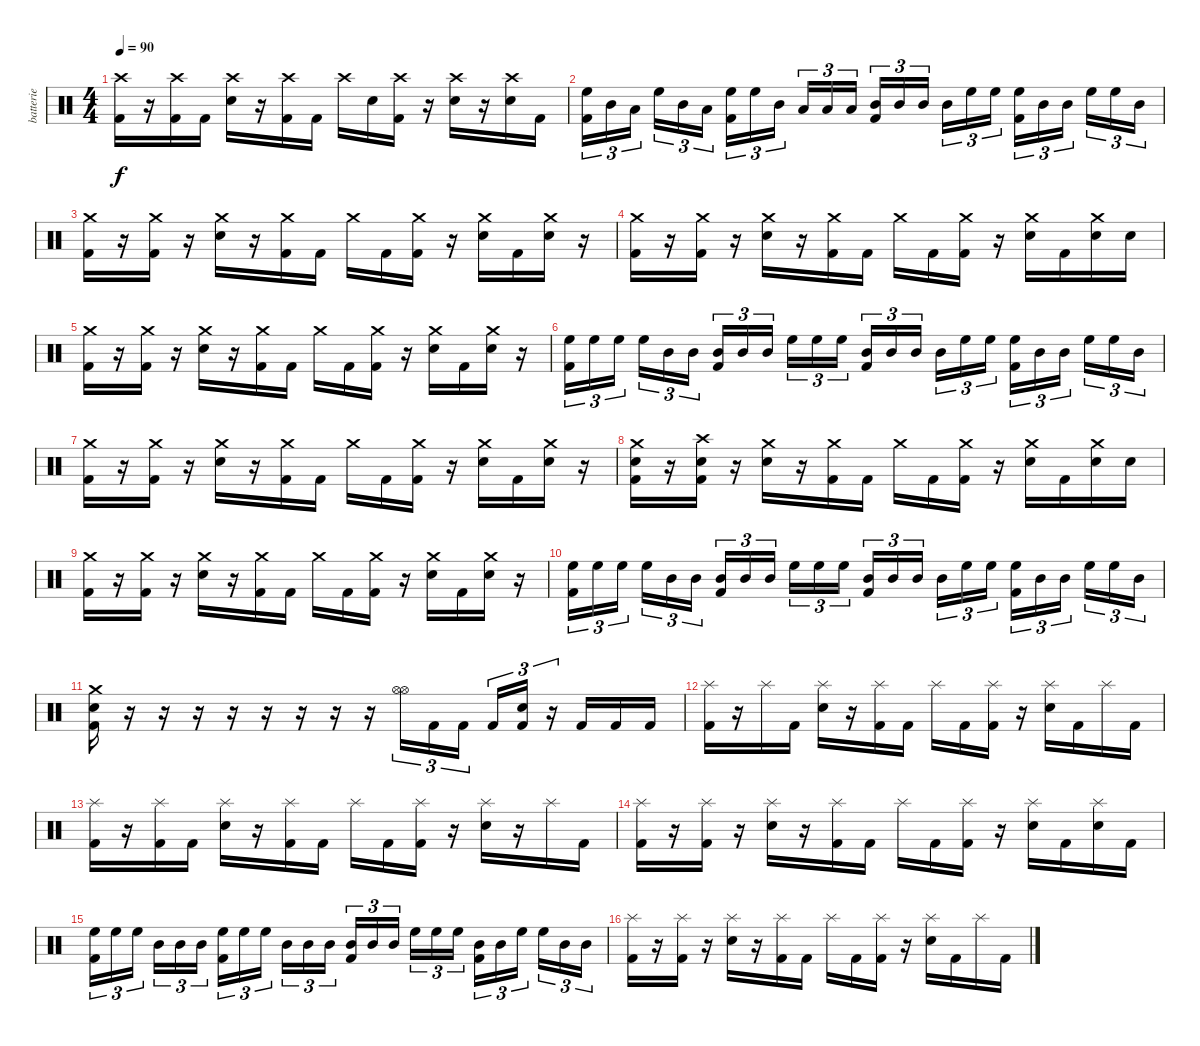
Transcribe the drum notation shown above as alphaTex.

\track ("batterie" "batterie") {instrument percussion}
\staff {score}
\articulation defaults
\ts (4 4)
\tempo 90
\clef neutral
\ks c
("Crash high (hit)" "Kick (hit) 2").16{dy f} r.16 ("Crash high (hit)" "Kick (hit) 2").16 "Kick (hit) 2".16 ("Crash high (hit)" "Electric Snare (hit)").16 r.16 ("Crash high (hit)" "Kick (hit) 2").16 "Kick (hit) 2".16 "Crash high (hit)".16 "Electric Snare (hit)".16 ("Crash high (hit)" "Kick (hit) 2").16 r.16 ("Crash high (hit)" "Electric Snare (hit)").16 r.16 ("Crash high (hit)" "Electric Snare (hit)").16 "Kick (hit) 2".16 |
("High Floor Tom (hit)" "Kick (hit) 2").16{tu (3 2)} "Mid Tom (hit)".16{tu (3 2)} "Low Tom (hit)".16{tu (3 2)} "High Floor Tom (hit)".16{tu (3 2)} "Mid Tom (hit)".16{tu (3 2)} "Low Tom (hit)".16{tu (3 2)} ("High Floor Tom (hit)" "Kick (hit) 2").16{tu (3 2)} "High Floor Tom (hit)".16{tu (3 2)} "Mid Tom (hit)".16{tu (3 2)} "Low Tom (hit)".16{tu (3 2)} "Low Tom (hit)".16{tu (3 2)} "Low Tom (hit)".16{tu (3 2)} ("Mid Tom (hit)" "Kick (hit) 2").16{tu (3 2)} "Mid Tom (hit)".16{tu (3 2)} "Mid Tom (hit)".16{tu (3 2)} "Mid Tom (hit)".16{tu (3 2)} "High Floor Tom (hit)".16{tu (3 2)} "High Floor Tom (hit)".16{tu (3 2)} ("High Floor Tom (hit)" "Kick (hit) 2").16{tu (3 2)} "Mid Tom (hit)".16{tu (3 2)} "Mid Tom (hit)".16{tu (3 2)} "High Floor Tom (hit)".16{tu (3 2)} "High Floor Tom (hit)".16{tu (3 2)} "Mid Tom (hit)".16{tu (3 2)} |
("Crash medium (hit)" "Kick (hit) 2").16 r.16 ("Crash medium (hit)" "Kick (hit) 2").16 r.16 ("Crash medium (hit)" "Electric Snare (hit)").16 r.16 ("Crash medium (hit)" "Kick (hit) 2").16 "Kick (hit) 2".16 "Crash medium (hit)".16 "Kick (hit) 2".16 ("Crash medium (hit)" "Kick (hit) 2").16 r.16 ("Crash medium (hit)" "Electric Snare (hit)").16 "Kick (hit) 2".16 ("Crash medium (hit)" "Electric Snare (hit)").16 r.16 |
("Crash medium (hit)" "Kick (hit) 2").16 r.16 ("Crash medium (hit)" "Kick (hit) 2").16 r.16 ("Crash medium (hit)" "Electric Snare (hit)").16 r.16 ("Crash medium (hit)" "Kick (hit) 2").16 "Kick (hit) 2".16 "Crash medium (hit)".16 "Kick (hit) 2".16 ("Crash medium (hit)" "Kick (hit) 2").16 r.16 ("Crash medium (hit)" "Electric Snare (hit)").16 "Kick (hit) 2".16 ("Crash medium (hit)" "Electric Snare (hit)").16 "Electric Snare (hit)".16 |
("Crash medium (hit)" "Kick (hit) 2").16 r.16 ("Crash medium (hit)" "Kick (hit) 2").16 r.16 ("Crash medium (hit)" "Electric Snare (hit)").16 r.16 ("Crash medium (hit)" "Kick (hit) 2").16 "Kick (hit) 2".16 "Crash medium (hit)".16 "Kick (hit) 2".16 ("Crash medium (hit)" "Kick (hit) 2").16 r.16 ("Crash medium (hit)" "Electric Snare (hit)").16 "Kick (hit) 2".16 ("Crash medium (hit)" "Electric Snare (hit)").16 r.16 |
("High Floor Tom (hit)" "Kick (hit) 2").16{tu (3 2)} "High Floor Tom (hit)".16{tu (3 2)} "High Floor Tom (hit)".16{tu (3 2)} "High Floor Tom (hit)".16{tu (3 2)} "Mid Tom (hit)".16{tu (3 2)} "Mid Tom (hit)".16{tu (3 2)} ("Mid Tom (hit)" "Kick (hit) 2").16{tu (3 2)} "Mid Tom (hit)".16{tu (3 2)} "Mid Tom (hit)".16{tu (3 2)} "High Floor Tom (hit)".16{tu (3 2)} "High Floor Tom (hit)".16{tu (3 2)} "High Floor Tom (hit)".16{tu (3 2)} ("Mid Tom (hit)" "Kick (hit) 2").16{tu (3 2)} "Mid Tom (hit)".16{tu (3 2)} "Mid Tom (hit)".16{tu (3 2)} "Mid Tom (hit)".16{tu (3 2)} "High Floor Tom (hit)".16{tu (3 2)} "High Floor Tom (hit)".16{tu (3 2)} ("High Floor Tom (hit)" "Kick (hit) 2").16{tu (3 2)} "Mid Tom (hit)".16{tu (3 2)} "Mid Tom (hit)".16{tu (3 2)} "High Floor Tom (hit)".16{tu (3 2)} "High Floor Tom (hit)".16{tu (3 2)} "Mid Tom (hit)".16{tu (3 2)} |
("Crash medium (hit)" "Kick (hit) 2").16 r.16 ("Crash medium (hit)" "Kick (hit) 2").16 r.16 ("Crash medium (hit)" "Electric Snare (hit)").16 r.16 ("Crash medium (hit)" "Kick (hit) 2").16 "Kick (hit) 2".16 "Crash medium (hit)".16 "Kick (hit) 2".16 ("Crash medium (hit)" "Kick (hit) 2").16 r.16 ("Crash medium (hit)" "Electric Snare (hit)").16 "Kick (hit) 2".16 ("Crash medium (hit)" "Electric Snare (hit)").16 r.16 |
("Crash medium (hit)" "Electric Snare (hit)" "Kick (hit) 2").16 r.16 ("Crash high (hit)" "Electric Snare (hit)" "Kick (hit) 2").16 r.16 ("Crash medium (hit)" "Electric Snare (hit)").16 r.16 ("Crash medium (hit)" "Kick (hit) 2").16 "Kick (hit) 2".16 "Crash medium (hit)".16 "Kick (hit) 2".16 ("Crash medium (hit)" "Kick (hit) 2").16 r.16 ("Crash medium (hit)" "Electric Snare (hit)").16 "Kick (hit) 2".16 ("Crash medium (hit)" "Electric Snare (hit)").16 "Electric Snare (hit)".16 |
("Crash medium (hit)" "Kick (hit) 2").16 r.16 ("Crash medium (hit)" "Kick (hit) 2").16 r.16 ("Crash medium (hit)" "Electric Snare (hit)").16 r.16 ("Crash medium (hit)" "Kick (hit) 2").16 "Kick (hit) 2".16 "Crash medium (hit)".16 "Kick (hit) 2".16 ("Crash medium (hit)" "Kick (hit) 2").16 r.16 ("Crash medium (hit)" "Electric Snare (hit)").16 "Kick (hit) 2".16 ("Crash medium (hit)" "Electric Snare (hit)").16 r.16 |
("High Floor Tom (hit)" "Kick (hit) 2").16{tu (3 2)} "High Floor Tom (hit)".16{tu (3 2)} "High Floor Tom (hit)".16{tu (3 2)} "High Floor Tom (hit)".16{tu (3 2)} "Mid Tom (hit)".16{tu (3 2)} "Mid Tom (hit)".16{tu (3 2)} ("Mid Tom (hit)" "Kick (hit) 2").16{tu (3 2)} "Mid Tom (hit)".16{tu (3 2)} "Mid Tom (hit)".16{tu (3 2)} "High Floor Tom (hit)".16{tu (3 2)} "High Floor Tom (hit)".16{tu (3 2)} "High Floor Tom (hit)".16{tu (3 2)} ("Mid Tom (hit)" "Kick (hit) 2").16{tu (3 2)} "Mid Tom (hit)".16{tu (3 2)} "Mid Tom (hit)".16{tu (3 2)} "Mid Tom (hit)".16{tu (3 2)} "High Floor Tom (hit)".16{tu (3 2)} "High Floor Tom (hit)".16{tu (3 2)} ("High Floor Tom (hit)" "Kick (hit) 2").16{tu (3 2)} "Mid Tom (hit)".16{tu (3 2)} "Mid Tom (hit)".16{tu (3 2)} "High Floor Tom (hit)".16{tu (3 2)} "High Floor Tom (hit)".16{tu (3 2)} "Mid Tom (hit)".16{tu (3 2)} |
("Crash medium (hit)" "Electric Snare (hit)" "Kick (hit) 2").16 r.16 r.16 r.16 r.16 r.16 r.16 r.16 r.16 ("Hi-Hat (open)" "Hi-Hat (open)").16{tu (3 2)} "Kick (hit) 2".16{tu (3 2)} "Kick (hit) 2".16{tu (3 2)} "Kick (hit) 2".16{tu (3 2)} ("Electric Snare (hit)" "Kick (hit) 2").16{tu (3 2)} r.16{tu (3 2)} "Kick (hit) 2".16 "Kick (hit) 2".16 "Kick (hit) 2".16 |
("Splash (hit)" "Kick (hit) 2").16 r.16 "Splash (hit)".16 "Kick (hit) 2".16 ("Splash (hit)" "Electric Snare (hit)").16 r.16 ("Splash (hit)" "Kick (hit) 2").16 "Kick (hit) 2".16 "Splash (hit)".16 "Kick (hit) 2".16 ("Splash (hit)" "Kick (hit) 2").16 r.16 ("Splash (hit)" "Electric Snare (hit)").16 "Kick (hit) 2".16 "Splash (hit)".16 "Kick (hit) 2".16 |
("Splash (hit)" "Kick (hit) 2").16 r.16 ("Splash (hit)" "Kick (hit) 2").16 "Kick (hit) 2".16 ("Splash (hit)" "Electric Snare (hit)").16 r.16 ("Splash (hit)" "Kick (hit) 2").16 "Kick (hit) 2".16 "Splash (hit)".16 "Kick (hit) 2".16 ("Splash (hit)" "Kick (hit) 2").16 r.16 ("Splash (hit)" "Electric Snare (hit)").16 r.16 "Splash (hit)".16 "Kick (hit) 2".16 |
("Splash (hit)" "Kick (hit) 2").16 r.16 ("Splash (hit)" "Kick (hit) 2").16 r.16 ("Splash (hit)" "Electric Snare (hit)").16 r.16 ("Splash (hit)" "Kick (hit) 2").16 "Kick (hit) 2".16 "Splash (hit)".16 "Kick (hit) 2".16 ("Splash (hit)" "Kick (hit) 2").16 r.16 ("Splash (hit)" "Electric Snare (hit)").16 "Kick (hit) 2".16 ("Splash (hit)" "Electric Snare (hit)").16 "Kick (hit) 2".16 |
("High Floor Tom (hit)" "Kick (hit) 2").16{tu (3 2)} "High Floor Tom (hit)".16{tu (3 2)} "High Floor Tom (hit)".16{tu (3 2)} "Mid Tom (hit)".16{tu (3 2)} "Mid Tom (hit)".16{tu (3 2)} "Mid Tom (hit)".16{tu (3 2)} ("High Floor Tom (hit)" "Kick (hit) 2").16{tu (3 2)} "High Floor Tom (hit)".16{tu (3 2)} "High Floor Tom (hit)".16{tu (3 2)} "Mid Tom (hit)".16{tu (3 2)} "Mid Tom (hit)".16{tu (3 2)} "Mid Tom (hit)".16{tu (3 2)} ("Mid Tom (hit)" "Kick (hit) 2").16{tu (3 2)} "Mid Tom (hit)".16{tu (3 2)} "Mid Tom (hit)".16{tu (3 2)} "High Floor Tom (hit)".16{tu (3 2)} "High Floor Tom (hit)".16{tu (3 2)} "High Floor Tom (hit)".16{tu (3 2)} ("Mid Tom (hit)" "Kick (hit) 2").16{tu (3 2)} "Mid Tom (hit)".16{tu (3 2)} "High Floor Tom (hit)".16{tu (3 2)} "High Floor Tom (hit)".16{tu (3 2)} "Mid Tom (hit)".16{tu (3 2)} "Mid Tom (hit)".16{tu (3 2)} |
("Splash (hit)" "Kick (hit) 2").16 r.16 ("Splash (hit)" "Kick (hit) 2").16 r.16 ("Splash (hit)" "Electric Snare (hit)").16 r.16 ("Splash (hit)" "Kick (hit) 2").16 "Kick (hit) 2".16 "Splash (hit)".16 "Kick (hit) 2".16 ("Splash (hit)" "Kick (hit) 2").16 r.16 ("Splash (hit)" "Electric Snare (hit)").16 "Kick (hit) 2".16 "Splash (hit)".16 "Kick (hit) 2".16
